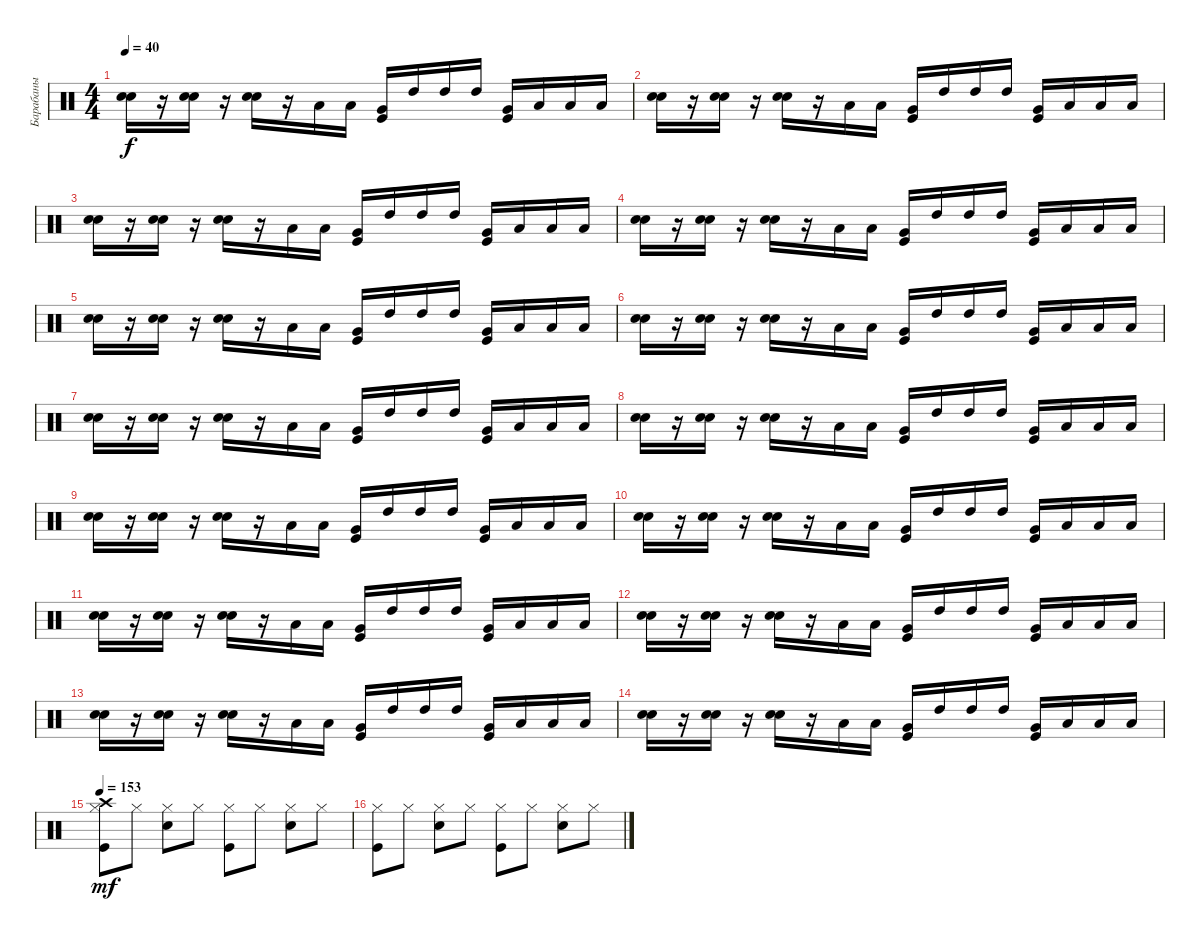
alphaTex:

\track ("Барабаны" "Барабаны") {instrument percussion}
\staff {score}
\articulation defaults
\ts (4 4)
\tempo 40
\clef neutral
\ks c
("Snare (hit) 2" "Hand Clap (hit)").16{dy f} r.16 ("Snare (hit) 2" "Hand Clap (hit)").16 r.16 ("Snare (hit) 2" "Hand Clap (hit)").16 r.16 "Low Floor Tom (hit)".16 "Low Floor Tom (hit)".16 ("Kick (hit)" "Very Low Tom (hit)").16 "High Tom (hit)".16 "High Tom (hit)".16 "High Tom (hit)".16 ("Kick (hit)" "Very Low Tom (hit)").16 "Low Floor Tom (hit)".16 "Low Floor Tom (hit)".16 "Low Floor Tom (hit)".16 |
("Snare (hit) 2" "Hand Clap (hit)").16 r.16 ("Snare (hit) 2" "Hand Clap (hit)").16 r.16 ("Snare (hit) 2" "Hand Clap (hit)").16 r.16 "Low Floor Tom (hit)".16 "Low Floor Tom (hit)".16 ("Kick (hit)" "Very Low Tom (hit)").16 "High Tom (hit)".16 "High Tom (hit)".16 "High Tom (hit)".16 ("Kick (hit)" "Very Low Tom (hit)").16 "Low Floor Tom (hit)".16 "Low Floor Tom (hit)".16 "Low Floor Tom (hit)".16 |
("Snare (hit) 2" "Hand Clap (hit)").16 r.16 ("Snare (hit) 2" "Hand Clap (hit)").16 r.16 ("Snare (hit) 2" "Hand Clap (hit)").16 r.16 "Low Floor Tom (hit)".16 "Low Floor Tom (hit)".16 ("Kick (hit)" "Very Low Tom (hit)").16 "High Tom (hit)".16 "High Tom (hit)".16 "High Tom (hit)".16 ("Kick (hit)" "Very Low Tom (hit)").16 "Low Floor Tom (hit)".16 "Low Floor Tom (hit)".16 "Low Floor Tom (hit)".16 |
("Snare (hit) 2" "Hand Clap (hit)").16 r.16 ("Snare (hit) 2" "Hand Clap (hit)").16 r.16 ("Snare (hit) 2" "Hand Clap (hit)").16 r.16 "Low Floor Tom (hit)".16 "Low Floor Tom (hit)".16 ("Kick (hit)" "Very Low Tom (hit)").16 "High Tom (hit)".16 "High Tom (hit)".16 "High Tom (hit)".16 ("Kick (hit)" "Very Low Tom (hit)").16 "Low Floor Tom (hit)".16 "Low Floor Tom (hit)".16 "Low Floor Tom (hit)".16 |
("Snare (hit) 2" "Hand Clap (hit)").16 r.16 ("Snare (hit) 2" "Hand Clap (hit)").16 r.16 ("Snare (hit) 2" "Hand Clap (hit)").16 r.16 "Low Floor Tom (hit)".16 "Low Floor Tom (hit)".16 ("Kick (hit)" "Very Low Tom (hit)").16 "High Tom (hit)".16 "High Tom (hit)".16 "High Tom (hit)".16 ("Kick (hit)" "Very Low Tom (hit)").16 "Low Floor Tom (hit)".16 "Low Floor Tom (hit)".16 "Low Floor Tom (hit)".16 |
("Snare (hit) 2" "Hand Clap (hit)").16 r.16 ("Snare (hit) 2" "Hand Clap (hit)").16 r.16 ("Snare (hit) 2" "Hand Clap (hit)").16 r.16 "Low Floor Tom (hit)".16 "Low Floor Tom (hit)".16 ("Kick (hit)" "Very Low Tom (hit)").16 "High Tom (hit)".16 "High Tom (hit)".16 "High Tom (hit)".16 ("Kick (hit)" "Very Low Tom (hit)").16 "Low Floor Tom (hit)".16 "Low Floor Tom (hit)".16 "Low Floor Tom (hit)".16 |
("Snare (hit) 2" "Hand Clap (hit)").16 r.16 ("Snare (hit) 2" "Hand Clap (hit)").16 r.16 ("Snare (hit) 2" "Hand Clap (hit)").16 r.16 "Low Floor Tom (hit)".16 "Low Floor Tom (hit)".16 ("Kick (hit)" "Very Low Tom (hit)").16 "High Tom (hit)".16 "High Tom (hit)".16 "High Tom (hit)".16 ("Kick (hit)" "Very Low Tom (hit)").16 "Low Floor Tom (hit)".16 "Low Floor Tom (hit)".16 "Low Floor Tom (hit)".16 |
("Snare (hit) 2" "Hand Clap (hit)").16 r.16 ("Snare (hit) 2" "Hand Clap (hit)").16 r.16 ("Snare (hit) 2" "Hand Clap (hit)").16 r.16 "Low Floor Tom (hit)".16 "Low Floor Tom (hit)".16 ("Kick (hit)" "Very Low Tom (hit)").16 "High Tom (hit)".16 "High Tom (hit)".16 "High Tom (hit)".16 ("Kick (hit)" "Very Low Tom (hit)").16 "Low Floor Tom (hit)".16 "Low Floor Tom (hit)".16 "Low Floor Tom (hit)".16 |
("Snare (hit) 2" "Hand Clap (hit)").16 r.16 ("Snare (hit) 2" "Hand Clap (hit)").16 r.16 ("Snare (hit) 2" "Hand Clap (hit)").16 r.16 "Low Floor Tom (hit)".16 "Low Floor Tom (hit)".16 ("Kick (hit)" "Very Low Tom (hit)").16 "High Tom (hit)".16 "High Tom (hit)".16 "High Tom (hit)".16 ("Kick (hit)" "Very Low Tom (hit)").16 "Low Floor Tom (hit)".16 "Low Floor Tom (hit)".16 "Low Floor Tom (hit)".16 |
("Snare (hit) 2" "Hand Clap (hit)").16 r.16 ("Snare (hit) 2" "Hand Clap (hit)").16 r.16 ("Snare (hit) 2" "Hand Clap (hit)").16 r.16 "Low Floor Tom (hit)".16 "Low Floor Tom (hit)".16 ("Kick (hit)" "Very Low Tom (hit)").16 "High Tom (hit)".16 "High Tom (hit)".16 "High Tom (hit)".16 ("Kick (hit)" "Very Low Tom (hit)").16 "Low Floor Tom (hit)".16 "Low Floor Tom (hit)".16 "Low Floor Tom (hit)".16 |
("Snare (hit) 2" "Hand Clap (hit)").16 r.16 ("Snare (hit) 2" "Hand Clap (hit)").16 r.16 ("Snare (hit) 2" "Hand Clap (hit)").16 r.16 "Low Floor Tom (hit)".16 "Low Floor Tom (hit)".16 ("Kick (hit)" "Very Low Tom (hit)").16 "High Tom (hit)".16 "High Tom (hit)".16 "High Tom (hit)".16 ("Kick (hit)" "Very Low Tom (hit)").16 "Low Floor Tom (hit)".16 "Low Floor Tom (hit)".16 "Low Floor Tom (hit)".16 |
("Snare (hit) 2" "Hand Clap (hit)").16 r.16 ("Snare (hit) 2" "Hand Clap (hit)").16 r.16 ("Snare (hit) 2" "Hand Clap (hit)").16 r.16 "Low Floor Tom (hit)".16 "Low Floor Tom (hit)".16 ("Kick (hit)" "Very Low Tom (hit)").16 "High Tom (hit)".16 "High Tom (hit)".16 "High Tom (hit)".16 ("Kick (hit)" "Very Low Tom (hit)").16 "Low Floor Tom (hit)".16 "Low Floor Tom (hit)".16 "Low Floor Tom (hit)".16 |
("Snare (hit) 2" "Hand Clap (hit)").16 r.16 ("Snare (hit) 2" "Hand Clap (hit)").16 r.16 ("Snare (hit) 2" "Hand Clap (hit)").16 r.16 "Low Floor Tom (hit)".16 "Low Floor Tom (hit)".16 ("Kick (hit)" "Very Low Tom (hit)").16 "High Tom (hit)".16 "High Tom (hit)".16 "High Tom (hit)".16 ("Kick (hit)" "Very Low Tom (hit)").16 "Low Floor Tom (hit)".16 "Low Floor Tom (hit)".16 "Low Floor Tom (hit)".16 |
("Snare (hit) 2" "Hand Clap (hit)").16 r.16 ("Snare (hit) 2" "Hand Clap (hit)").16 r.16 ("Snare (hit) 2" "Hand Clap (hit)").16 r.16 "Low Floor Tom (hit)".16 "Low Floor Tom (hit)".16 ("Kick (hit)" "Very Low Tom (hit)").16 "High Tom (hit)".16 "High Tom (hit)".16 "High Tom (hit)".16 ("Kick (hit)" "Very Low Tom (hit)").16 "Low Floor Tom (hit)".16 "Low Floor Tom (hit)".16 "Low Floor Tom (hit)".16 |
\tempo 153
("Kick (hit)" "Hi-Hat (closed)" "Crash high (hit)").8{dy mf} "Hi-Hat (closed)".8 ("Snare (hit) 2" "Hi-Hat (closed)").8 "Hi-Hat (closed)".8 ("Kick (hit)" "Hi-Hat (closed)").8 "Hi-Hat (closed)".8 ("Snare (hit) 2" "Hi-Hat (closed)").8 "Hi-Hat (closed)".8 |
("Kick (hit)" "Hi-Hat (closed)").8 "Hi-Hat (closed)".8 ("Snare (hit) 2" "Hi-Hat (closed)").8 "Hi-Hat (closed)".8 ("Kick (hit)" "Hi-Hat (closed)").8 "Hi-Hat (closed)".8 ("Snare (hit) 2" "Hi-Hat (closed)").8 "Hi-Hat (closed)".8
